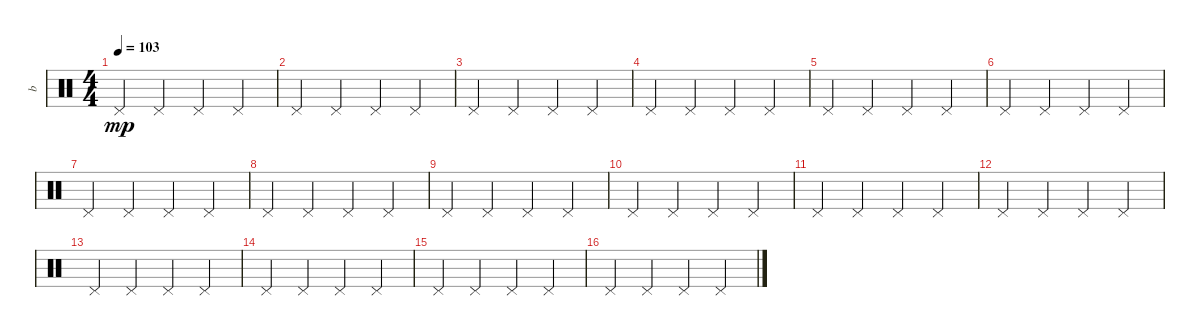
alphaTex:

\track ("b" "b") {instrument percussion}
\staff {score}
\articulation defaults
\ts (4 4)
\tempo 103
\clef neutral
\ks c "Pedal Hi-Hat (hit)".4{dy mp} "Pedal Hi-Hat (hit)".4 "Pedal Hi-Hat (hit)".4 "Pedal Hi-Hat (hit)".4
|
"Pedal Hi-Hat (hit)".4 "Pedal Hi-Hat (hit)".4 "Pedal Hi-Hat (hit)".4 "Pedal Hi-Hat (hit)".4 |
"Pedal Hi-Hat (hit)".4 "Pedal Hi-Hat (hit)".4 "Pedal Hi-Hat (hit)".4 "Pedal Hi-Hat (hit)".4 |
"Pedal Hi-Hat (hit)".4 "Pedal Hi-Hat (hit)".4 "Pedal Hi-Hat (hit)".4 "Pedal Hi-Hat (hit)".4 |
"Pedal Hi-Hat (hit)".4 "Pedal Hi-Hat (hit)".4 "Pedal Hi-Hat (hit)".4 "Pedal Hi-Hat (hit)".4 |
"Pedal Hi-Hat (hit)".4 "Pedal Hi-Hat (hit)".4 "Pedal Hi-Hat (hit)".4 "Pedal Hi-Hat (hit)".4 |
"Pedal Hi-Hat (hit)".4 "Pedal Hi-Hat (hit)".4 "Pedal Hi-Hat (hit)".4 "Pedal Hi-Hat (hit)".4 |
"Pedal Hi-Hat (hit)".4 "Pedal Hi-Hat (hit)".4 "Pedal Hi-Hat (hit)".4 "Pedal Hi-Hat (hit)".4 |
"Pedal Hi-Hat (hit)".4 "Pedal Hi-Hat (hit)".4 "Pedal Hi-Hat (hit)".4 "Pedal Hi-Hat (hit)".4 |
"Pedal Hi-Hat (hit)".4 "Pedal Hi-Hat (hit)".4 "Pedal Hi-Hat (hit)".4 "Pedal Hi-Hat (hit)".4 |
"Pedal Hi-Hat (hit)".4 "Pedal Hi-Hat (hit)".4 "Pedal Hi-Hat (hit)".4 "Pedal Hi-Hat (hit)".4 |
"Pedal Hi-Hat (hit)".4 "Pedal Hi-Hat (hit)".4 "Pedal Hi-Hat (hit)".4 "Pedal Hi-Hat (hit)".4 |
"Pedal Hi-Hat (hit)".4 "Pedal Hi-Hat (hit)".4 "Pedal Hi-Hat (hit)".4 "Pedal Hi-Hat (hit)".4 |
"Pedal Hi-Hat (hit)".4 "Pedal Hi-Hat (hit)".4 "Pedal Hi-Hat (hit)".4 "Pedal Hi-Hat (hit)".4 |
"Pedal Hi-Hat (hit)".4 "Pedal Hi-Hat (hit)".4 "Pedal Hi-Hat (hit)".4 "Pedal Hi-Hat (hit)".4 |
"Pedal Hi-Hat (hit)".4 "Pedal Hi-Hat (hit)".4 "Pedal Hi-Hat (hit)".4 "Pedal Hi-Hat (hit)".4
